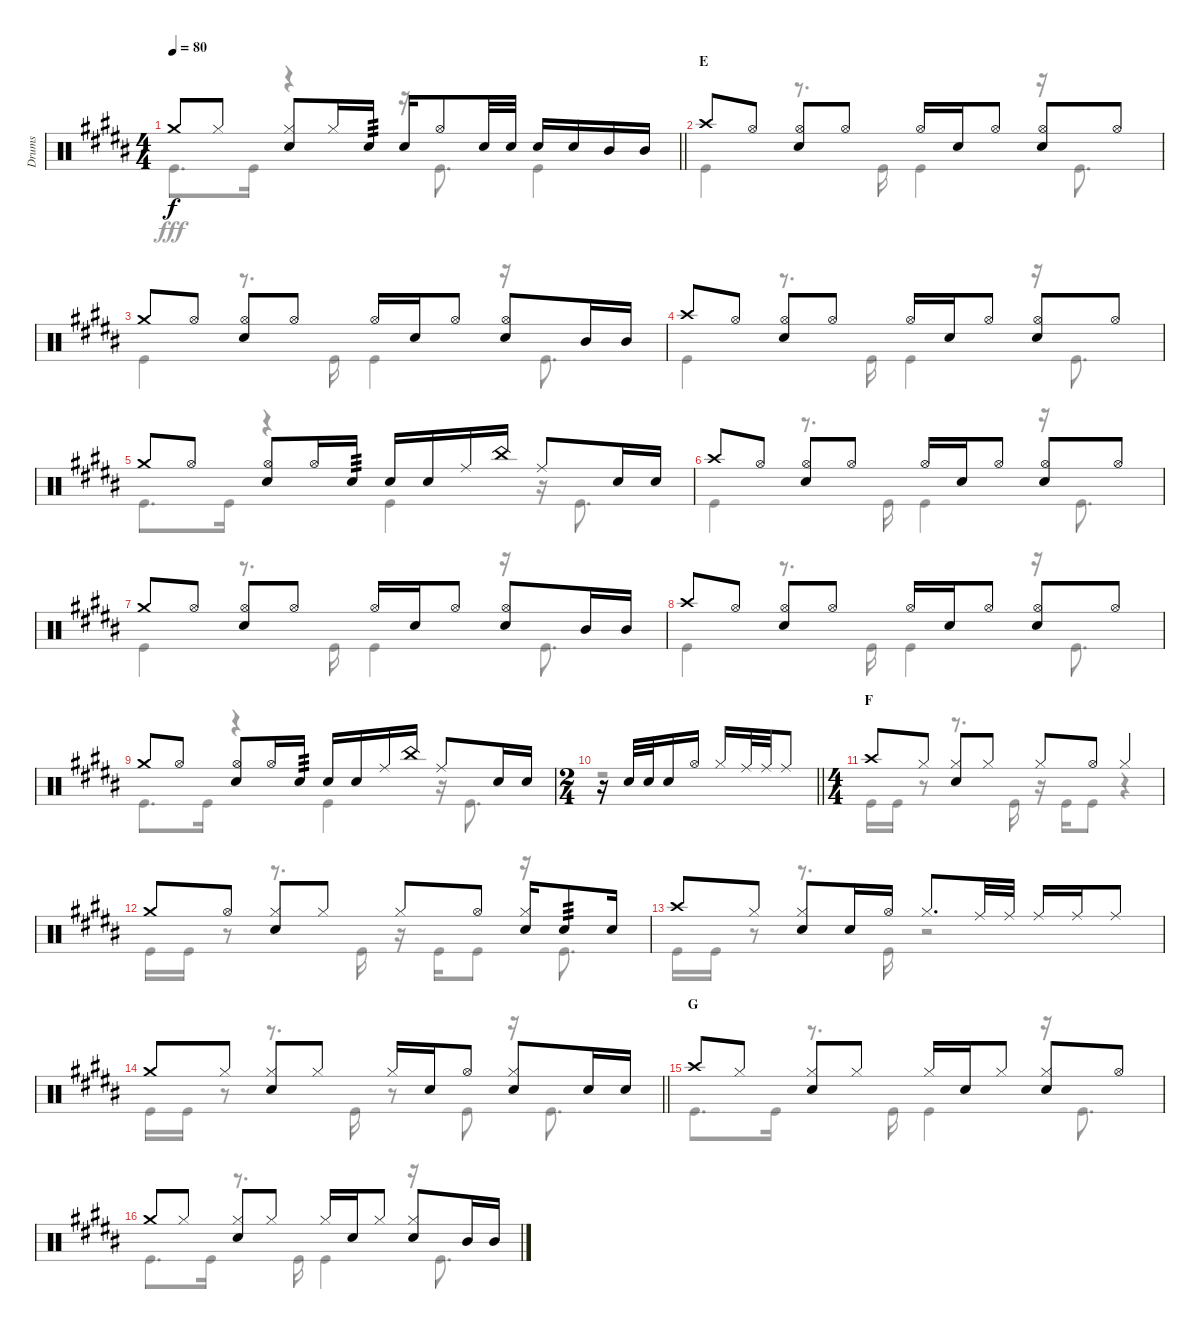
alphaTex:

\track ("Drums" "Drums") {instrument percussion}
\staff {score}
\articulation defaults
\voice
\ts (4 4)
\tempo 80
\clef neutral
\barLineRight lightlight
\ks b "Crash medium (hit)".8{dy f} "Hi-Hat (closed)".8
("Hi-Hat (closed)" "Snare (hit) 2").8 "Hi-Hat (closed)".16 "Snare (hit) 2".16{tp 3} "Snare (hit) 2".16 "Hi-Hat (open)".8 "Snare (hit) 2".32 "Snare (hit) 2".32 "Snare (hit) 2".16 "Snare (hit) 2".16 "Mid Tom (hit)".16 "Mid Tom (hit)".16 |
\section ("" "E")
"Crash high (hit)".8 "Hi-Hat (open)".8 ("Hi-Hat (open)" "Snare (hit) 2").8 "Hi-Hat (open)".8 "Hi-Hat (open)".16 "Snare (hit) 2".16 "Hi-Hat (open)".8 ("Hi-Hat (open)" "Snare (hit) 2").8 "Hi-Hat (open)".8 |
"Crash medium (hit)".8 "Hi-Hat (open)".8 ("Hi-Hat (open)" "Snare (hit) 2").8 "Hi-Hat (open)".8 "Hi-Hat (open)".16 "Snare (hit) 2".16 "Hi-Hat (open)".8 ("Hi-Hat (open)" "Snare (hit) 2").8 "Mid Tom (hit)".16 "Mid Tom (hit)".16 |
"Crash high (hit)".8 "Hi-Hat (open)".8 ("Hi-Hat (open)" "Snare (hit) 2").8 "Hi-Hat (open)".8 "Hi-Hat (open)".16 "Snare (hit) 2".16 "Hi-Hat (open)".8 ("Hi-Hat (open)" "Snare (hit) 2").8 "Hi-Hat (open)".8 |
"Crash medium (hit)".8 "Hi-Hat (open)".8 ("Hi-Hat (open)" "Snare (hit) 2").8 "Hi-Hat (open)".16 "Snare (hit) 2".16{tp 3} "Snare (hit) 2".16 "Snare (hit) 2".16 "Ride (middle)".16 "China (hit)".16 "Ride (middle)".8 "Snare (hit) 2".16 "Snare (hit) 2".16 |
"Crash high (hit)".8 "Hi-Hat (open)".8 ("Hi-Hat (open)" "Snare (hit) 2").8 "Hi-Hat (open)".8 "Hi-Hat (open)".16 "Snare (hit) 2".16 "Hi-Hat (open)".8 ("Hi-Hat (open)" "Snare (hit) 2").8 "Hi-Hat (open)".8 |
"Crash medium (hit)".8 "Hi-Hat (open)".8 ("Hi-Hat (open)" "Snare (hit) 2").8 "Hi-Hat (open)".8 "Hi-Hat (open)".16 "Snare (hit) 2".16 "Hi-Hat (open)".8 ("Hi-Hat (open)" "Snare (hit) 2").8 "Mid Tom (hit)".16 "Mid Tom (hit)".16 |
"Crash high (hit)".8 "Hi-Hat (open)".8 ("Hi-Hat (open)" "Snare (hit) 2").8 "Hi-Hat (open)".8 "Hi-Hat (open)".16 "Snare (hit) 2".16 "Hi-Hat (open)".8 ("Hi-Hat (open)" "Snare (hit) 2").8 "Hi-Hat (open)".8 |
"Crash medium (hit)".8 "Hi-Hat (open)".8 ("Hi-Hat (open)" "Snare (hit) 2").8 "Hi-Hat (open)".16 "Snare (hit) 2".16{tp 3} "Snare (hit) 2".16 "Snare (hit) 2".16 "Ride (middle)".16 "China (hit)".16 "Ride (middle)".8 "Snare (hit) 2".16 "Snare (hit) 2".16 |
\ts (2 4)
\barLineRight lightlight
r.16 "Snare (hit) 2".32 "Snare (hit) 2".32 "Snare (hit) 2".16 "Hi-Hat (open)".16 "Hi-Hat (closed)".16 "Ride (middle)".32 "Ride (middle)".32 "Ride (middle)".8 |
\ts (4 4)
\section ("" "F")
"Crash high (hit)".8 "Hi-Hat (closed)".8 ("Hi-Hat (closed)" "Snare (hit) 2").8 "Hi-Hat (closed)".8 "Hi-Hat (closed)".8 "Hi-Hat (open)".8 "Hi-Hat (closed)".4 |
"Crash medium (hit)".8 "Hi-Hat (open)".8 ("Hi-Hat (closed)" "Snare (hit) 2").8 "Hi-Hat (closed)".8 "Hi-Hat (closed)".8 "Hi-Hat (open)".8 ("Hi-Hat (closed)" "Snare (hit) 2").16 "Snare (hit) 2".8{tp 3} "Snare (hit) 2".16 |
"Crash high (hit)".8 "Hi-Hat (closed)".8 ("Hi-Hat (closed)" "Snare (hit) 2").8 "Snare (hit) 2".16 "Hi-Hat (open)".16 "Hi-Hat (closed)".8{d} "Ride (middle)".32 "Ride (middle)".32 "Ride (middle)".16 "Ride (middle)".16 "Ride (middle)".8 |
\barLineRight lightlight "Crash medium (hit)".8 "Hi-Hat (closed)".8
("Hi-Hat (closed)" "Snare (hit) 2").8 "Hi-Hat (closed)".8 "Hi-Hat (closed)".16 "Snare (hit) 2".16 "Hi-Hat (open)".8 ("Hi-Hat (closed)" "Snare (hit) 2").8 "Snare (hit) 2".16 "Snare (hit) 2".16 |
\section ("" "G")
"Crash high (hit)".8 "Hi-Hat (closed)".8 ("Hi-Hat (closed)" "Snare (hit) 2").8 "Hi-Hat (closed)".8 "Hi-Hat (closed)".16 "Snare (hit) 2".16 "Hi-Hat (closed)".8 ("Hi-Hat (closed)" "Snare (hit) 2").8 "Hi-Hat (open)".8 |
"Crash medium (hit)".8 "Hi-Hat (closed)".8 ("Hi-Hat (closed)" "Snare (hit) 2").8 "Hi-Hat (closed)".8 "Hi-Hat (closed)".16 "Snare (hit) 2".16 "Hi-Hat (closed)".8 ("Hi-Hat (closed)" "Snare (hit) 2").8 "Mid Tom (hit)".16 "Mid Tom (hit)".16
\voice
\clef neutral
\ottava regular
\simile none
\barLineRight lightlight
\ks b "Kick (hit)".8{d dy fff} "Kick (hit)".16
r.4 r.16 "Kick (hit)".8{d} "Kick (hit)".4 |
"Kick (hit)".4 r.8{d} "Kick (hit)".16 "Kick (hit)".4 r.16 "Kick (hit)".8{d} |
"Kick (hit)".4 r.8{d} "Kick (hit)".16 "Kick (hit)".4 r.16 "Kick (hit)".8{d} |
"Kick (hit)".4 r.8{d} "Kick (hit)".16 "Kick (hit)".4 r.16 "Kick (hit)".8{d} |
"Kick (hit)".8{d} "Kick (hit)".16 r.4 "Kick (hit)".4 r.16 "Kick (hit)".8{d} |
"Kick (hit)".4 r.8{d} "Kick (hit)".16 "Kick (hit)".4 r.16 "Kick (hit)".8{d} |
"Kick (hit)".4 r.8{d} "Kick (hit)".16 "Kick (hit)".4 r.16 "Kick (hit)".8{d} |
"Kick (hit)".4 r.8{d} "Kick (hit)".16 "Kick (hit)".4 r.16 "Kick (hit)".8{d} |
"Kick (hit)".8{d} "Kick (hit)".16 r.4 "Kick (hit)".4 r.16 "Kick (hit)".8{d} |
\barLineRight lightlight
r.2 |
"Kick (hit)".16 "Kick (hit)".16 r.8 r.8{d} "Kick (hit)".16 r.16 "Kick (hit)".16 "Kick (hit)".8 r.4 |
"Kick (hit)".16 "Kick (hit)".16 r.8 r.8{d} "Kick (hit)".16 r.16 "Kick (hit)".16 "Kick (hit)".8 r.16 "Kick (hit)".8{d} |
"Kick (hit)".16 "Kick (hit)".16 r.8 r.8{d} "Kick (hit)".16 r.2 |
\barLineRight lightlight "Kick (hit)".16 "Kick (hit)".16
r.8 r.8{d} "Kick (hit)".16 r.8 "Kick (hit)".8 r.16 "Kick (hit)".8{d} |
"Kick (hit)".8{d} "Kick (hit)".16 r.8{d} "Kick (hit)".16 "Kick (hit)".4 r.16 "Kick (hit)".8{d} |
"Kick (hit)".8{d} "Kick (hit)".16 r.8{d} "Kick (hit)".16 "Kick (hit)".4 r.16 "Kick (hit)".8{d}
